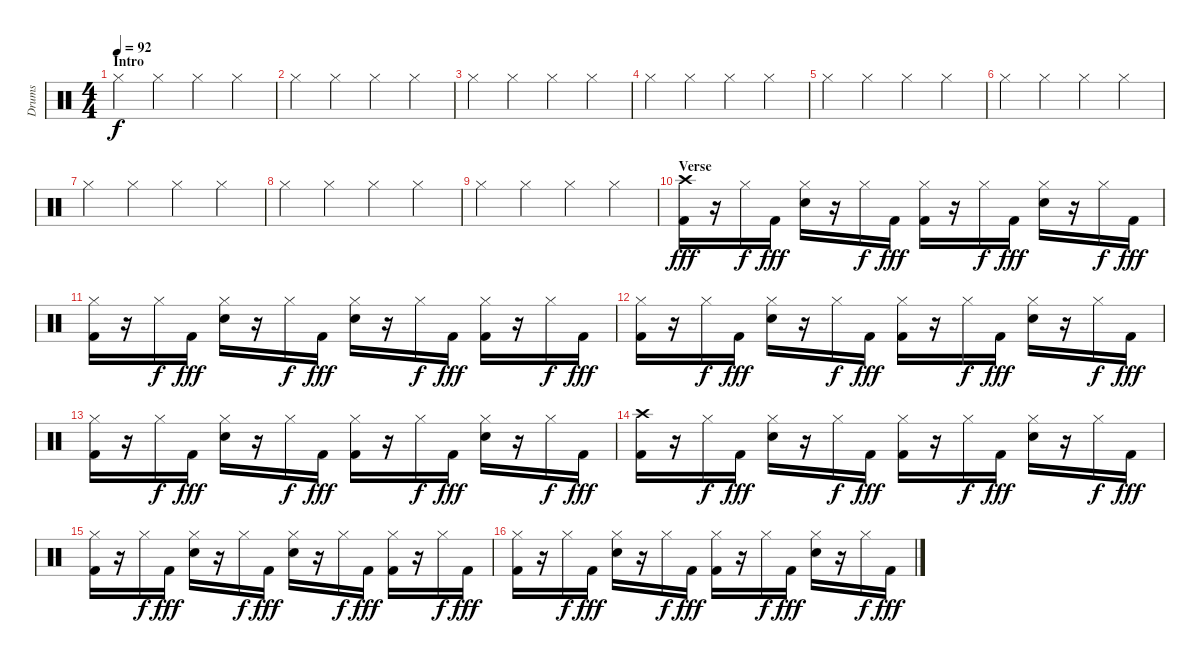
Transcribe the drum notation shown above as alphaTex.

\track ("Drums" "Drums") {instrument percussion}
\staff {score}
\articulation defaults
\ts (4 4)
\section ("" "Intro")
\tempo 92
\clef neutral
\ks c "Hi-Hat (closed)".4{dy f} "Hi-Hat (closed)".4 "Hi-Hat (closed)".4 "Hi-Hat (closed)".4
|
"Hi-Hat (closed)".4 "Hi-Hat (closed)".4 "Hi-Hat (closed)".4 "Hi-Hat (closed)".4 |
"Hi-Hat (closed)".4 "Hi-Hat (closed)".4 "Hi-Hat (closed)".4 "Hi-Hat (closed)".4 |
"Hi-Hat (closed)".4 "Hi-Hat (closed)".4 "Hi-Hat (closed)".4 "Hi-Hat (closed)".4 |
"Hi-Hat (closed)".4 "Hi-Hat (closed)".4 "Hi-Hat (closed)".4 "Hi-Hat (closed)".4 |
"Hi-Hat (closed)".4 "Hi-Hat (closed)".4 "Hi-Hat (closed)".4 "Hi-Hat (closed)".4 |
"Hi-Hat (closed)".4 "Hi-Hat (closed)".4 "Hi-Hat (closed)".4 "Hi-Hat (closed)".4 |
"Hi-Hat (closed)".4 "Hi-Hat (closed)".4 "Hi-Hat (closed)".4 "Hi-Hat (closed)".4 |
"Hi-Hat (closed)".4 "Hi-Hat (closed)".4 "Hi-Hat (closed)".4 "Hi-Hat (closed)".4 |
\section ("" "Verse")
("Crash high (hit)" "Kick (hit) 2").16{dy fff} r.16 "Hi-Hat (closed)".16{dy f} "Kick (hit) 2".16{dy fff} ("Hi-Hat (closed)" "Electric Snare (hit)").16 r.16 "Hi-Hat (closed)".16{dy f} "Kick (hit) 2".16{dy fff} ("Hi-Hat (closed)" "Kick (hit) 2").16 r.16 "Hi-Hat (closed)".16{dy f} "Kick (hit) 2".16{dy fff} ("Hi-Hat (closed)" "Electric Snare (hit)").16 r.16 "Hi-Hat (closed)".16{dy f} "Kick (hit) 2".16{dy fff} |
("Hi-Hat (closed)" "Kick (hit) 2").16 r.16 "Hi-Hat (closed)".16{dy f} "Kick (hit) 2".16{dy fff} ("Hi-Hat (closed)" "Electric Snare (hit)").16 r.16 "Hi-Hat (closed)".16{dy f} "Kick (hit) 2".16{dy fff} ("Hi-Hat (closed)" "Electric Snare (hit)").16 r.16 "Hi-Hat (closed)".16{dy f} "Kick (hit) 2".16{dy fff} ("Hi-Hat (closed)" "Kick (hit) 2").16 r.16 "Hi-Hat (closed)".16{dy f} "Kick (hit) 2".16{dy fff} |
("Hi-Hat (closed)" "Kick (hit) 2").16 r.16 "Hi-Hat (closed)".16{dy f} "Kick (hit) 2".16{dy fff} ("Hi-Hat (closed)" "Electric Snare (hit)").16 r.16 "Hi-Hat (closed)".16{dy f} "Kick (hit) 2".16{dy fff} ("Hi-Hat (closed)" "Kick (hit) 2").16 r.16 "Hi-Hat (closed)".16{dy f} "Kick (hit) 2".16{dy fff} ("Hi-Hat (closed)" "Electric Snare (hit)").16 r.16 "Hi-Hat (closed)".16{dy f} "Kick (hit) 2".16{dy fff} |
("Hi-Hat (closed)" "Kick (hit) 2").16 r.16 "Hi-Hat (closed)".16{dy f} "Kick (hit) 2".16{dy fff} ("Hi-Hat (closed)" "Electric Snare (hit)").16 r.16 "Hi-Hat (closed)".16{dy f} "Kick (hit) 2".16{dy fff} ("Hi-Hat (closed)" "Kick (hit) 2").16 r.16 "Hi-Hat (closed)".16{dy f} "Kick (hit) 2".16{dy fff} ("Hi-Hat (closed)" "Electric Snare (hit)").16 r.16 "Hi-Hat (closed)".16{dy f} "Kick (hit) 2".16{dy fff} |
("Crash high (hit)" "Kick (hit) 2").16 r.16 "Hi-Hat (closed)".16{dy f} "Kick (hit) 2".16{dy fff} ("Hi-Hat (closed)" "Electric Snare (hit)").16 r.16 "Hi-Hat (closed)".16{dy f} "Kick (hit) 2".16{dy fff} ("Hi-Hat (closed)" "Kick (hit) 2").16 r.16 "Hi-Hat (closed)".16{dy f} "Kick (hit) 2".16{dy fff} ("Hi-Hat (closed)" "Electric Snare (hit)").16 r.16 "Hi-Hat (closed)".16{dy f} "Kick (hit) 2".16{dy fff} |
("Hi-Hat (closed)" "Kick (hit) 2").16 r.16 "Hi-Hat (closed)".16{dy f} "Kick (hit) 2".16{dy fff} ("Hi-Hat (closed)" "Electric Snare (hit)").16 r.16 "Hi-Hat (closed)".16{dy f} "Kick (hit) 2".16{dy fff} ("Hi-Hat (closed)" "Electric Snare (hit)").16 r.16 "Hi-Hat (closed)".16{dy f} "Kick (hit) 2".16{dy fff} ("Hi-Hat (closed)" "Kick (hit) 2").16 r.16 "Hi-Hat (closed)".16{dy f} "Kick (hit) 2".16{dy fff} |
("Hi-Hat (closed)" "Kick (hit) 2").16 r.16 "Hi-Hat (closed)".16{dy f} "Kick (hit) 2".16{dy fff} ("Hi-Hat (closed)" "Electric Snare (hit)").16 r.16 "Hi-Hat (closed)".16{dy f} "Kick (hit) 2".16{dy fff} ("Hi-Hat (closed)" "Kick (hit) 2").16 r.16 "Hi-Hat (closed)".16{dy f} "Kick (hit) 2".16{dy fff} ("Hi-Hat (closed)" "Electric Snare (hit)").16 r.16 "Hi-Hat (closed)".16{dy f} "Kick (hit) 2".16{dy fff}
